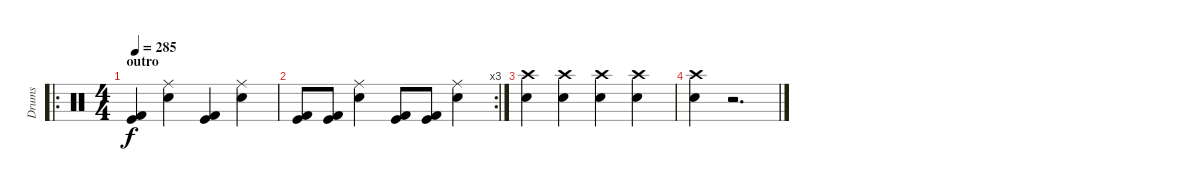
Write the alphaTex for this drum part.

\track ("Drums" "Drums") {instrument percussion}
\staff {score}
\articulation defaults
\ro
\ts (4 4)
\section ("" "outro")
\tempo 285
\clef neutral
\ks c
("Kick (hit)" "Kick (hit) 2").4{dy f} ("Ride (middle)" "Electric Snare (hit)").4 ("Kick (hit)" "Kick (hit) 2").4 ("Ride (middle)" "Electric Snare (hit)").4 |
\rc 3
("Kick (hit)" "Kick (hit) 2").8 ("Kick (hit)" "Kick (hit) 2").8 ("Ride (middle)" "Electric Snare (hit)").4 ("Kick (hit)" "Kick (hit) 2").8 ("Kick (hit)" "Kick (hit) 2").8 ("Ride (middle)" "Electric Snare (hit)").4 |
("Crash high (hit)" "Electric Snare (hit)").4 ("Crash high (hit)" "Electric Snare (hit)").4 ("Crash high (hit)" "Electric Snare (hit)").4 ("Crash high (hit)" "Electric Snare (hit)").4 |
("Crash high (hit)" "Electric Snare (hit)").4 r.2{d}
